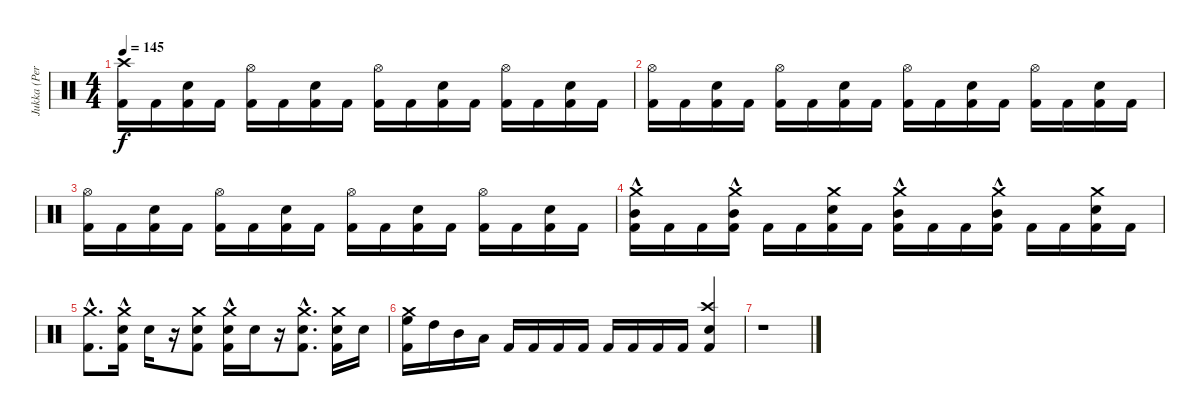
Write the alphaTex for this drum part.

\track ("Jukka (Percussion)" "Jukka (Per") {instrument percussion}
\staff {score}
\articulation defaults
\ts (4 4)
\tempo 145
\clef neutral
\ks c
("Kick (hit) 2" "Crash high (hit)").16{dy f} "Kick (hit) 2".16 ("Kick (hit) 2" "Electric Snare (hit)").16 "Kick (hit) 2".16 ("Kick (hit) 2" "Hi-Hat (open)").16 "Kick (hit) 2".16 ("Kick (hit) 2" "Electric Snare (hit)").16 "Kick (hit) 2".16 ("Kick (hit) 2" "Hi-Hat (open)").16 "Kick (hit) 2".16 ("Kick (hit) 2" "Electric Snare (hit)").16 "Kick (hit) 2".16 ("Kick (hit) 2" "Hi-Hat (open)").16 "Kick (hit) 2".16 ("Kick (hit) 2" "Electric Snare (hit)").16 "Kick (hit) 2".16 |
("Kick (hit) 2" "Hi-Hat (open)").16 "Kick (hit) 2".16 ("Kick (hit) 2" "Electric Snare (hit)").16 "Kick (hit) 2".16 ("Kick (hit) 2" "Hi-Hat (open)").16 "Kick (hit) 2".16 ("Kick (hit) 2" "Electric Snare (hit)").16 "Kick (hit) 2".16 ("Kick (hit) 2" "Hi-Hat (open)").16 "Kick (hit) 2".16 ("Kick (hit) 2" "Electric Snare (hit)").16 "Kick (hit) 2".16 ("Kick (hit) 2" "Hi-Hat (open)").16 "Kick (hit) 2".16 ("Kick (hit) 2" "Electric Snare (hit)").16 "Kick (hit) 2".16 |
("Kick (hit) 2" "Hi-Hat (open)").16 "Kick (hit) 2".16 ("Kick (hit) 2" "Electric Snare (hit)").16 "Kick (hit) 2".16 ("Kick (hit) 2" "Hi-Hat (open)").16 "Kick (hit) 2".16 ("Kick (hit) 2" "Electric Snare (hit)").16 "Kick (hit) 2".16 ("Kick (hit) 2" "Hi-Hat (open)").16 "Kick (hit) 2".16 ("Kick (hit) 2" "Electric Snare (hit)").16 "Kick (hit) 2".16 ("Kick (hit) 2" "Hi-Hat (open)").16 "Kick (hit) 2".16 ("Kick (hit) 2" "Electric Snare (hit)").16 "Kick (hit) 2".16 |
("Kick (hit) 2" "Mid Tom (hit)" "Crash medium (hit)"{hac}).16 "Kick (hit) 2".16 "Kick (hit) 2".16 ("Kick (hit) 2" "Mid Tom (hit)" "Crash medium (hit)"{hac}).16 "Kick (hit) 2".16 "Kick (hit) 2".16 ("Kick (hit) 2" "Electric Snare (hit)" "Crash medium (hit)").16 "Kick (hit) 2".16 ("Kick (hit) 2" "Mid Tom (hit)" "Crash medium (hit)"{hac}).16 "Kick (hit) 2".16 "Kick (hit) 2".16 ("Kick (hit) 2" "Mid Tom (hit)" "Crash medium (hit)"{hac}).16 "Kick (hit) 2".16 "Kick (hit) 2".16 ("Kick (hit) 2" "Electric Snare (hit)" "Crash medium (hit)").16 "Kick (hit) 2".16 |
("Kick (hit) 2" "Crash medium (hit)"{hac}).8{d} ("Kick (hit) 2" "Electric Snare (hit)" "Crash medium (hit)"{hac}).16 "Electric Snare (hit)".16 r.16 ("Kick (hit) 2" "Electric Snare (hit)" "Crash medium (hit)").8 ("Kick (hit) 2" "Electric Snare (hit)" "Crash medium (hit)"{hac}).16 "Electric Snare (hit)".16 r.16 ("Kick (hit) 2" "Electric Snare (hit)" "Crash medium (hit)"{hac}).8{d} ("Kick (hit) 2" "Electric Snare (hit)" "Crash medium (hit)").16 "Electric Snare (hit)".16 |
("Kick (hit) 2" "High Floor Tom (hit)" "Crash medium (hit)").16 "High Tom (hit)".16 "Mid Tom (hit)".16 "Low Tom (hit)".16 "Kick (hit) 2".16 "Kick (hit) 2".16 "Kick (hit) 2".16 "Kick (hit) 2".16 "Kick (hit) 2".16 "Kick (hit) 2".16 "Kick (hit) 2".16 "Kick (hit) 2".16 ("Kick (hit) 2" "Electric Snare (hit)" "Crash high (hit)").4 |
r.1
